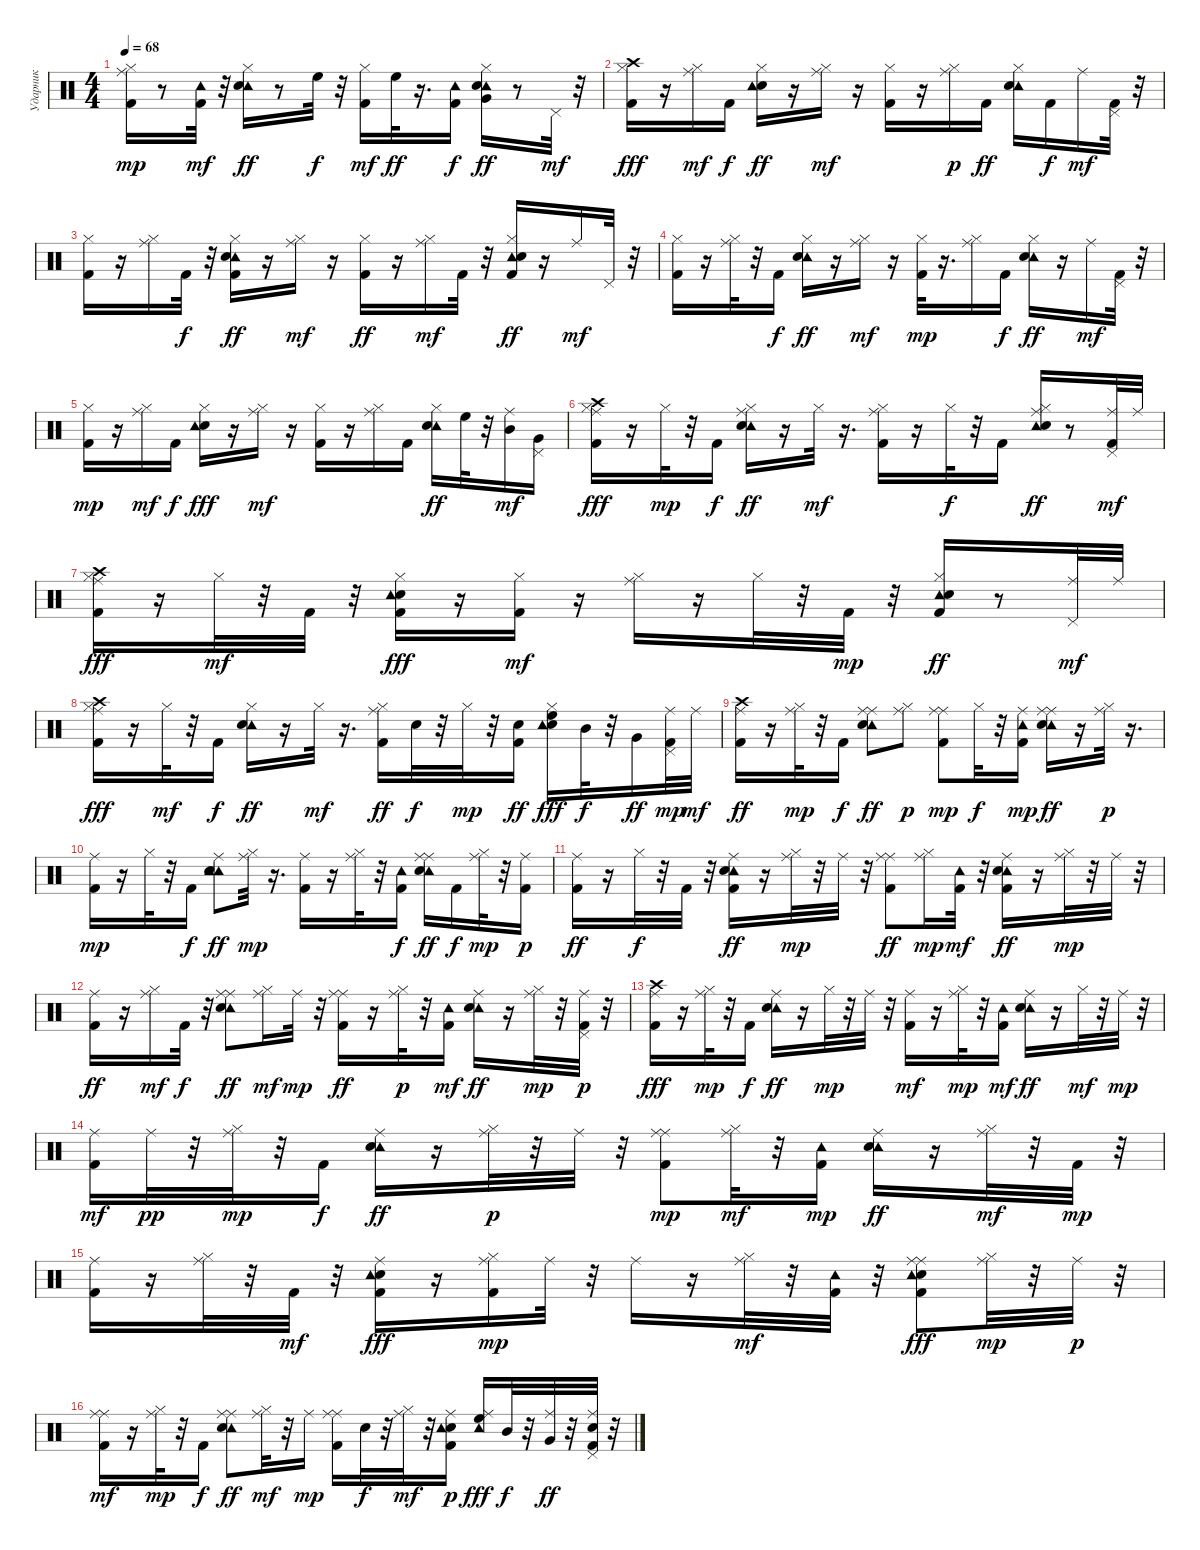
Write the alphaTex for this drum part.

\track ("Ударник" "Ударник") {instrument percussion}
\staff {score}
\articulation defaults
\ts (4 4)
\tempo 68
\clef neutral
\ks c
("Ride (middle)" "Kick (hit) 2" "Hi-Hat (closed)").16{dy mp} r.8 ("Tambourine (hit)" "Kick (hit) 2").32{dy mf} r.32 ("Hi-Hat (closed)" "Tambourine (hit)" "Electric Snare (hit)").16{dy ff} r.8 "High Floor Tom (hit)".32{dy f} r.32 ("Kick (hit) 2" "Hi-Hat (closed)").16{dy mf} "High Floor Tom (hit)".32{dy ff} r.16{d} ("Kick (hit) 2" "Tambourine (hit)").16{dy f} ("Very Low Tom (hit)" "Hi-Hat (closed)" "Tambourine (hit)" "Electric Snare (hit)").16{dy ff} r.8 "Pedal Hi-Hat (hit)".32{dy mf} r.32 |
("Kick (hit) 2" "Hi-Hat (closed)" "Crash high (hit)").16{dy fff} r.16 ("Hi-Hat (closed)" "Ride (middle)").16{dy mf} "Kick (hit) 2".16{dy f} ("Electric Snare (hit)" "Hi-Hat (closed)" "Tambourine (hit)").16{dy ff} r.16 ("Ride (middle)" "Hi-Hat (closed)").16{dy mf} r.16 ("Kick (hit) 2" "Hi-Hat (closed)").16 r.16 ("Ride (middle)" "Hi-Hat (closed)").16{dy p} "Kick (hit) 2".16{dy ff} ("Hi-Hat (closed)" "Tambourine (hit)" "Electric Snare (hit)").16 "Kick (hit) 2".16{dy f} "Ride (middle)".16{dy mf} ("Kick (hit) 2" "Pedal Hi-Hat (hit)").32 r.32 |
("Hi-Hat (closed)" "Kick (hit) 2").16 r.16 ("Ride (middle)" "Hi-Hat (closed)").16 "Kick (hit) 2".32{dy f} r.32 ("Tambourine (hit)" "Kick (hit) 2" "Hi-Hat (closed)" "Electric Snare (hit)").16{dy ff} r.16 ("Hi-Hat (closed)" "Ride (middle)").16{dy mf} r.16 ("Kick (hit) 2" "Hi-Hat (closed)").16{dy ff} r.16 ("Hi-Hat (closed)" "Ride (middle)").16{dy mf} "Kick (hit) 2".32 r.32 ("Kick (hit) 2" "Tambourine (hit)" "Hi-Hat (closed)" "Electric Snare (hit)").16{dy ff} r.16 "Ride (middle)".16{dy mf} "Pedal Hi-Hat (hit)".32 r.32 |
("Hi-Hat (closed)" "Kick (hit) 2").16 r.16 ("Hi-Hat (closed)" "Ride (middle)").32 r.32 "Kick (hit) 2".16{dy f} ("Hi-Hat (closed)" "Tambourine (hit)" "Electric Snare (hit)").16{dy ff} r.16 ("Hi-Hat (closed)" "Ride (middle)").16{dy mf} r.16 ("Kick (hit) 2" "Hi-Hat (closed)").32{dy mp} r.16{d} ("Ride (middle)" "Hi-Hat (closed)").16 "Kick (hit) 2".16{dy f} ("Tambourine (hit)" "Hi-Hat (closed)" "Electric Snare (hit)").16{dy ff} r.16 "Ride (middle)".16{dy mf} ("Kick (hit) 2" "Pedal Hi-Hat (hit)").32 r.32 |
("Kick (hit) 2" "Hi-Hat (closed)").16{dy mp} r.16 ("Hi-Hat (closed)" "Ride (middle)").16{dy mf} "Kick (hit) 2".16{dy f} ("Hi-Hat (closed)" "Electric Snare (hit)" "Tambourine (hit)").16{dy fff} r.16 ("Hi-Hat (closed)" "Ride (middle)").16{dy mf} r.16 ("Kick (hit) 2" "Hi-Hat (closed)").16 r.16 ("Hi-Hat (closed)" "Ride (middle)").16 "Kick (hit) 2".16 ("Tambourine (hit)" "Hi-Hat (closed)" "Electric Snare (hit)").16{dy ff} "High Floor Tom (hit)".32 r.32 ("Mid Tom (hit)" "Ride (middle)").16{dy mf} ("Pedal Hi-Hat (hit)" "Very Low Tom (hit)").16 |
("Ride (middle)" "Kick (hit) 2" "Hi-Hat (closed)" "Crash high (hit)").16{dy fff} r.16 "Hi-Hat (closed)".32{dy mp} r.32 "Kick (hit) 2".16{dy f} ("Ride (middle)" "Hi-Hat (closed)" "Tambourine (hit)" "Electric Snare (hit)").16{dy ff} r.16 "Hi-Hat (closed)".32{dy mf} r.16{d} ("Kick (hit) 2" "Ride (middle)" "Hi-Hat (closed)").16 r.16 "Hi-Hat (closed)".32{dy f} r.32 "Kick (hit) 2".16 ("Ride (middle)" "Hi-Hat (closed)" "Tambourine (hit)" "Electric Snare (hit)").16{dy ff} r.8 ("Ride (middle)" "Kick (hit) 2" "Pedal Hi-Hat (hit)").32{dy mf} "Ride (middle)".32 |
("Kick (hit) 2" "Ride (middle)" "Hi-Hat (closed)" "Crash high (hit)").16{dy fff} r.16 "Hi-Hat (closed)".32{dy mf} r.32 "Kick (hit) 2".32 r.32 ("Kick (hit) 2" "Hi-Hat (closed)" "Electric Snare (hit)" "Tambourine (hit)").16{dy fff} r.16 ("Kick (hit) 2" "Hi-Hat (closed)").16{dy mf} r.16 ("Ride (middle)" "Hi-Hat (closed)").16 r.16 "Hi-Hat (closed)".32 r.32 "Kick (hit) 2".32{dy mp} r.32 ("Kick (hit) 2" "Tambourine (hit)" "Hi-Hat (closed)" "Electric Snare (hit)").16{dy ff} r.8 ("Ride (middle)" "Pedal Hi-Hat (hit)").32{dy mf} "Ride (middle)".32 |
("Hi-Hat (closed)" "Kick (hit) 2" "Ride (middle)" "Crash high (hit)").16{dy fff} r.16 "Hi-Hat (closed)".32{dy mf} r.32 "Kick (hit) 2".16{dy f} ("Hi-Hat (closed)" "Tambourine (hit)" "Electric Snare (hit)").16{dy ff} r.16 "Hi-Hat (closed)".32{dy mf} r.16{d} ("Hi-Hat (closed)" "Ride (middle)" "Kick (hit) 2").16{dy ff} "Electric Snare (hit)".32{dy f} r.32 "Hi-Hat (closed)".32{dy mp} r.32 ("Kick (hit) 2" "Electric Snare (hit)").16{dy ff} ("High Floor Tom (hit)" "Electric Snare (hit)" "Hi-Hat (closed)" "Tambourine (hit)").16{dy fff} "Mid Tom (hit)".32{dy f} r.32 "Very Low Tom (hit)".16{dy ff} ("Pedal Hi-Hat (hit)" "Kick (hit) 2" "Ride (middle)").32{dy mp} "Ride (middle)".32{dy mf} |
("Kick (hit) 2" "Ride (middle)" "Crash high (hit)").16{dy ff} r.16 ("Ride (middle)" "Hi-Hat (closed)").32{dy mp} r.32 "Kick (hit) 2".16{dy f} ("Ride (middle)" "Ride (middle)" "Tambourine (hit)" "Electric Snare (hit)").8{dy ff} ("Hi-Hat (closed)" "Ride (middle)").8{dy p} ("Kick (hit) 2" "Ride (middle)" "Ride (middle)").8{dy mp} "Hi-Hat (closed)".32{dy f} r.32 ("Tambourine (hit)" "Kick (hit) 2" "Ride (middle)").16{dy mp} ("Ride (middle)" "Ride (middle)" "Tambourine (hit)" "Electric Snare (hit)").16{dy ff} r.16 ("Ride (middle)" "Hi-Hat (closed)").32{dy p} r.16{d} |
("Ride (middle)" "Kick (hit) 2").16{dy mp} r.16 "Hi-Hat (closed)".32 r.32 "Kick (hit) 2".16{dy f} ("Ride (middle)" "Tambourine (hit)" "Tambourine (hit)" "Electric Snare (hit)").8{dy ff} ("Hi-Hat (closed)" "Ride (middle)").32{dy mp} r.16{d} ("Ride (middle)" "Kick (hit) 2").16 r.16 ("Ride (middle)" "Hi-Hat (closed)").32 r.32 ("Kick (hit) 2" "Tambourine (hit)").16{dy f} ("Ride (middle)" "Ride (middle)" "Tambourine (hit)" "Electric Snare (hit)").16{dy ff} "Kick (hit) 2".16{dy f} ("Ride (middle)" "Hi-Hat (closed)").32{dy mp} r.32 ("Kick (hit) 2" "Ride (middle)").16{dy p} |
("Ride (middle)" "Kick (hit) 2").16{dy ff} r.16 "Hi-Hat (closed)".32{dy f} r.32 "Kick (hit) 2".32 r.32 ("Ride (middle)" "Kick (hit) 2" "Tambourine (hit)" "Electric Snare (hit)").16{dy ff} r.16 ("Hi-Hat (closed)" "Ride (middle)").32{dy mp} r.32 "Ride (middle)".32 r.32 ("Ride (middle)" "Ride (middle)" "Kick (hit) 2").8{dy ff} ("Ride (middle)" "Hi-Hat (closed)").16{dy mp} ("Kick (hit) 2" "Tambourine (hit)").32{dy mf} r.32 ("Kick (hit) 2" "Ride (middle)" "Tambourine (hit)" "Electric Snare (hit)").16{dy ff} r.16 ("Ride (middle)" "Hi-Hat (closed)").32{dy mp} r.32 "Ride (middle)".32 r.32 |
("Ride (middle)" "Kick (hit) 2").16{dy ff} r.16 ("Ride (middle)" "Hi-Hat (closed)").16{dy mf} "Kick (hit) 2".32{dy f} r.32 ("Tambourine (hit)" "Ride (middle)" "Ride (middle)" "Electric Snare (hit)").8{dy ff} ("Ride (middle)" "Hi-Hat (closed)").16{dy mf} "Ride (middle)".32{dy mp} r.32 ("Ride (middle)" "Ride (middle)" "Kick (hit) 2").16{dy ff} r.16 ("Ride (middle)" "Hi-Hat (closed)").32{dy p} r.32 ("Kick (hit) 2" "Tambourine (hit)").16{dy mf} ("Ride (middle)" "Tambourine (hit)" "Electric Snare (hit)").16{dy ff} r.16 ("Ride (middle)" "Hi-Hat (closed)").32{dy mp} r.32 ("Pedal Hi-Hat (hit)" "Kick (hit) 2" "Ride (middle)").32{dy p} r.32 |
("Kick (hit) 2" "Ride (middle)" "Crash high (hit)").16{dy fff} r.16 ("Hi-Hat (closed)" "Ride (middle)").32{dy mp} r.32 "Kick (hit) 2".16{dy f} ("Ride (middle)" "Tambourine (hit)" "Electric Snare (hit)").16{dy ff} r.16 "Hi-Hat (closed)".32{dy mp} r.32 "Ride (middle)".32 r.32 ("Kick (hit) 2" "Ride (middle)").16{dy mf} r.16 ("Hi-Hat (closed)" "Ride (middle)").32{dy mp} r.32 ("Kick (hit) 2" "Tambourine (hit)").16{dy mf} ("Ride (middle)" "Tambourine (hit)" "Electric Snare (hit)").16{dy ff} r.16 "Hi-Hat (closed)".32{dy mf} r.32 "Ride (middle)".32{dy mp} r.32 |
("Kick (hit) 2" "Ride (middle)").16{dy mf} "Ride (middle)".32{dy pp} r.32 ("Ride (middle)" "Hi-Hat (closed)").32{dy mp} r.32 "Kick (hit) 2".16{dy f} ("Ride (middle)" "Tambourine (hit)" "Electric Snare (hit)").16{dy ff} r.16 ("Ride (middle)" "Hi-Hat (closed)").32{dy p} r.32 "Ride (middle)".32 r.32 ("Kick (hit) 2" "Ride (middle)" "Ride (middle)").8{dy mp} ("Ride (middle)" "Hi-Hat (closed)").32{dy mf} r.32 ("Kick (hit) 2" "Tambourine (hit)").16{dy mp} ("Ride (middle)" "Tambourine (hit)" "Electric Snare (hit)").16{dy ff} r.16 ("Ride (middle)" "Hi-Hat (closed)").32{dy mf} r.32 "Kick (hit) 2".32{dy mp} r.32 |
("Kick (hit) 2" "Ride (middle)").16 r.16 ("Ride (middle)" "Hi-Hat (closed)").32 r.32 "Kick (hit) 2".32{dy mf} r.32 ("Ride (middle)" "Kick (hit) 2" "Electric Snare (hit)" "Tambourine (hit)").16{dy fff} r.16 ("Ride (middle)" "Kick (hit) 2" "Hi-Hat (closed)").16{dy mp} "Ride (middle)".32 r.32 "Ride (middle)".16 r.16 ("Ride (middle)" "Hi-Hat (closed)").32{dy mf} r.32 ("Kick (hit) 2" "Tambourine (hit)").32 r.32 ("Kick (hit) 2" "Ride (middle)" "Ride (middle)" "Electric Snare (hit)" "Tambourine (hit)").8{dy fff} ("Ride (middle)" "Hi-Hat (closed)").32{dy mp} r.32 "Ride (middle)".32{dy p} r.32 |
("Kick (hit) 2" "Ride (middle)" "Ride (middle)").16{dy mf} r.16 ("Ride (middle)" "Hi-Hat (closed)").32{dy mp} r.32 "Kick (hit) 2".16{dy f} ("Ride (middle)" "Ride (middle)" "Tambourine (hit)" "Electric Snare (hit)").8{dy ff} ("Ride (middle)" "Hi-Hat (closed)").32{dy mf} r.32 "Ride (middle)".16{dy mp} ("Ride (middle)" "Kick (hit) 2" "Ride (middle)").16 "Electric Snare (hit)".32{dy f} r.32 ("Ride (middle)" "Hi-Hat (closed)").32{dy mf} r.32 ("Electric Snare (hit)" "Kick (hit) 2" "Ride (middle)" "Tambourine (hit)").16{dy p} ("High Floor Tom (hit)" "Ride (middle)" "Tambourine (hit)").16{dy fff} "Mid Tom (hit)".32{dy f} r.32 ("Ride (middle)" "Very Low Tom (hit)").32{dy ff} r.32 ("Ride (middle)" "Kick (hit) 2" "Pedal Hi-Hat (hit)" "Electric Snare (hit)").32 r.32
